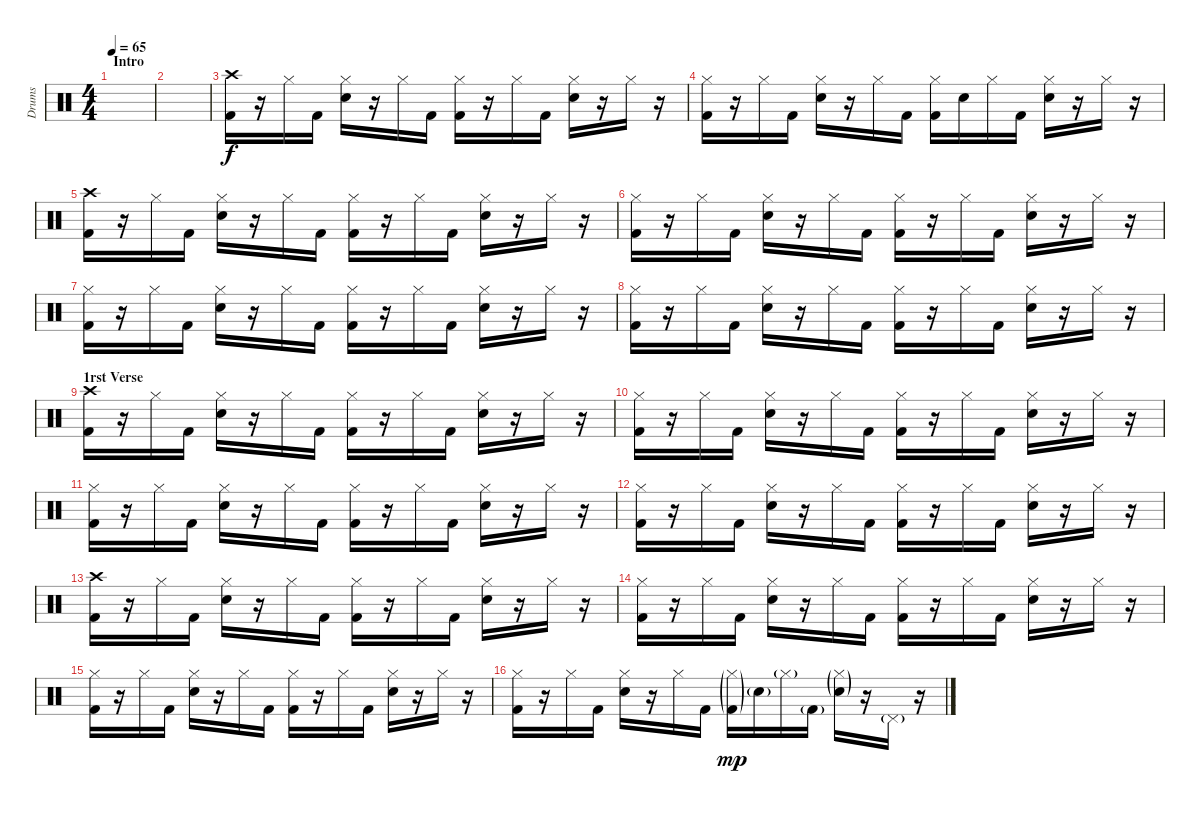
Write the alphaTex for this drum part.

\track ("Drums" "Drums") {instrument percussion}
\staff {score}
\articulation defaults
\ts (4 4)
\section ("" "Intro")
\tempo 65
\clef neutral
\ks c
|
|
("Crash high (hit)" "Kick (hit) 2").16 r.16 "Hi-Hat (closed)".16 "Kick (hit) 2".16 ("Hi-Hat (closed)" "Snare (hit) 2").16 r.16 "Hi-Hat (closed)".16 "Kick (hit) 2".16 ("Hi-Hat (closed)" "Kick (hit) 2").16 r.16 "Hi-Hat (closed)".16 "Kick (hit) 2".16 ("Hi-Hat (closed)" "Snare (hit) 2").16 r.16 "Hi-Hat (closed)".16 r.16 |
("Hi-Hat (closed)" "Kick (hit) 2").16 r.16 "Hi-Hat (closed)".16 "Kick (hit) 2".16 ("Hi-Hat (closed)" "Snare (hit) 2").16 r.16 "Hi-Hat (closed)".16 "Kick (hit) 2".16 ("Hi-Hat (closed)" "Kick (hit) 2").16 "Snare (hit) 2".16 "Hi-Hat (closed)".16 "Kick (hit) 2".16 ("Hi-Hat (closed)" "Snare (hit) 2").16 r.16 "Hi-Hat (closed)".16 r.16 |
("Crash high (hit)" "Kick (hit) 2").16 r.16 "Hi-Hat (closed)".16 "Kick (hit) 2".16 ("Hi-Hat (closed)" "Snare (hit) 2").16 r.16 "Hi-Hat (closed)".16 "Kick (hit) 2".16 ("Hi-Hat (closed)" "Kick (hit) 2").16 r.16 "Hi-Hat (closed)".16 "Kick (hit) 2".16 ("Hi-Hat (closed)" "Snare (hit) 2").16 r.16 "Hi-Hat (closed)".16 r.16 |
("Hi-Hat (closed)" "Kick (hit) 2").16 r.16 "Hi-Hat (closed)".16 "Kick (hit) 2".16 ("Hi-Hat (closed)" "Snare (hit) 2").16 r.16 "Hi-Hat (closed)".16 "Kick (hit) 2".16 ("Hi-Hat (closed)" "Kick (hit) 2").16 r.16 "Hi-Hat (closed)".16 "Kick (hit) 2".16 ("Hi-Hat (closed)" "Snare (hit) 2").16 r.16 "Hi-Hat (closed)".16 r.16 |
("Hi-Hat (closed)" "Kick (hit) 2").16 r.16 "Hi-Hat (closed)".16 "Kick (hit) 2".16 ("Hi-Hat (closed)" "Snare (hit) 2").16 r.16 "Hi-Hat (closed)".16 "Kick (hit) 2".16 ("Hi-Hat (closed)" "Kick (hit) 2").16 r.16 "Hi-Hat (closed)".16 "Kick (hit) 2".16 ("Hi-Hat (closed)" "Snare (hit) 2").16 r.16 "Hi-Hat (closed)".16 r.16 |
("Hi-Hat (closed)" "Kick (hit) 2").16 r.16 "Hi-Hat (closed)".16 "Kick (hit) 2".16 ("Hi-Hat (closed)" "Snare (hit) 2").16 r.16 "Hi-Hat (closed)".16 "Kick (hit) 2".16 ("Hi-Hat (closed)" "Kick (hit) 2").16 r.16 "Hi-Hat (closed)".16 "Kick (hit) 2".16 ("Hi-Hat (closed)" "Snare (hit) 2").16 r.16 "Hi-Hat (closed)".16 r.16 |
\section ("" "1rst Verse")
("Crash high (hit)" "Kick (hit) 2").16 r.16 "Hi-Hat (closed)".16 "Kick (hit) 2".16 ("Hi-Hat (closed)" "Snare (hit) 2").16 r.16 "Hi-Hat (closed)".16 "Kick (hit) 2".16 ("Hi-Hat (closed)" "Kick (hit) 2").16 r.16 "Hi-Hat (closed)".16 "Kick (hit) 2".16 ("Hi-Hat (closed)" "Snare (hit) 2").16 r.16 "Hi-Hat (closed)".16 r.16 |
("Hi-Hat (closed)" "Kick (hit) 2").16 r.16 "Hi-Hat (closed)".16 "Kick (hit) 2".16 ("Hi-Hat (closed)" "Snare (hit) 2").16 r.16 "Hi-Hat (closed)".16 "Kick (hit) 2".16 ("Hi-Hat (closed)" "Kick (hit) 2").16 r.16 "Hi-Hat (closed)".16 "Kick (hit) 2".16 ("Hi-Hat (closed)" "Snare (hit) 2").16 r.16 "Hi-Hat (closed)".16 r.16 |
("Hi-Hat (closed)" "Kick (hit) 2").16 r.16 "Hi-Hat (closed)".16 "Kick (hit) 2".16 ("Hi-Hat (closed)" "Snare (hit) 2").16 r.16 "Hi-Hat (closed)".16 "Kick (hit) 2".16 ("Hi-Hat (closed)" "Kick (hit) 2").16 r.16 "Hi-Hat (closed)".16 "Kick (hit) 2".16 ("Hi-Hat (closed)" "Snare (hit) 2").16 r.16 "Hi-Hat (closed)".16 r.16 |
("Hi-Hat (closed)" "Kick (hit) 2").16 r.16 "Hi-Hat (closed)".16 "Kick (hit) 2".16 ("Hi-Hat (closed)" "Snare (hit) 2").16 r.16 "Hi-Hat (closed)".16 "Kick (hit) 2".16 ("Hi-Hat (closed)" "Kick (hit) 2").16 r.16 "Hi-Hat (closed)".16 "Kick (hit) 2".16 ("Hi-Hat (closed)" "Snare (hit) 2").16 r.16 "Hi-Hat (closed)".16 r.16 |
("Crash high (hit)" "Kick (hit) 2").16 r.16 "Hi-Hat (closed)".16 "Kick (hit) 2".16 ("Hi-Hat (closed)" "Snare (hit) 2").16 r.16 "Hi-Hat (closed)".16 "Kick (hit) 2".16 ("Hi-Hat (closed)" "Kick (hit) 2").16 r.16 "Hi-Hat (closed)".16 "Kick (hit) 2".16 ("Hi-Hat (closed)" "Snare (hit) 2").16 r.16 "Hi-Hat (closed)".16 r.16 |
("Hi-Hat (closed)" "Kick (hit) 2").16 r.16 "Hi-Hat (closed)".16 "Kick (hit) 2".16 ("Hi-Hat (closed)" "Snare (hit) 2").16 r.16 "Hi-Hat (closed)".16 "Kick (hit) 2".16 ("Hi-Hat (closed)" "Kick (hit) 2").16 r.16 "Hi-Hat (closed)".16 "Kick (hit) 2".16 ("Hi-Hat (closed)" "Snare (hit) 2").16 r.16 "Hi-Hat (closed)".16 r.16 |
("Hi-Hat (closed)" "Kick (hit) 2").16 r.16 "Hi-Hat (closed)".16 "Kick (hit) 2".16 ("Hi-Hat (closed)" "Snare (hit) 2").16 r.16 "Hi-Hat (closed)".16 "Kick (hit) 2".16 ("Hi-Hat (closed)" "Kick (hit) 2").16 r.16 "Hi-Hat (closed)".16 "Kick (hit) 2".16 ("Hi-Hat (closed)" "Snare (hit) 2").16 r.16 "Hi-Hat (closed)".16 r.16 |
("Hi-Hat (closed)" "Kick (hit) 2").16 r.16 "Hi-Hat (closed)".16 "Kick (hit) 2".16 ("Hi-Hat (closed)" "Snare (hit) 2").16 r.16 "Hi-Hat (closed)".16 "Kick (hit) 2".16 ("Hi-Hat (closed)"{g} "Kick (hit) 2"{g}).16{dy mp} "Snare (hit) 2"{g}.16 "Hi-Hat (closed)"{g}.16 "Kick (hit) 2"{g}.16 ("Hi-Hat (closed)"{g} "Snare (hit) 2"{g}).16 r.16 "Pedal Hi-Hat (hit)"{g}.16 r.16
